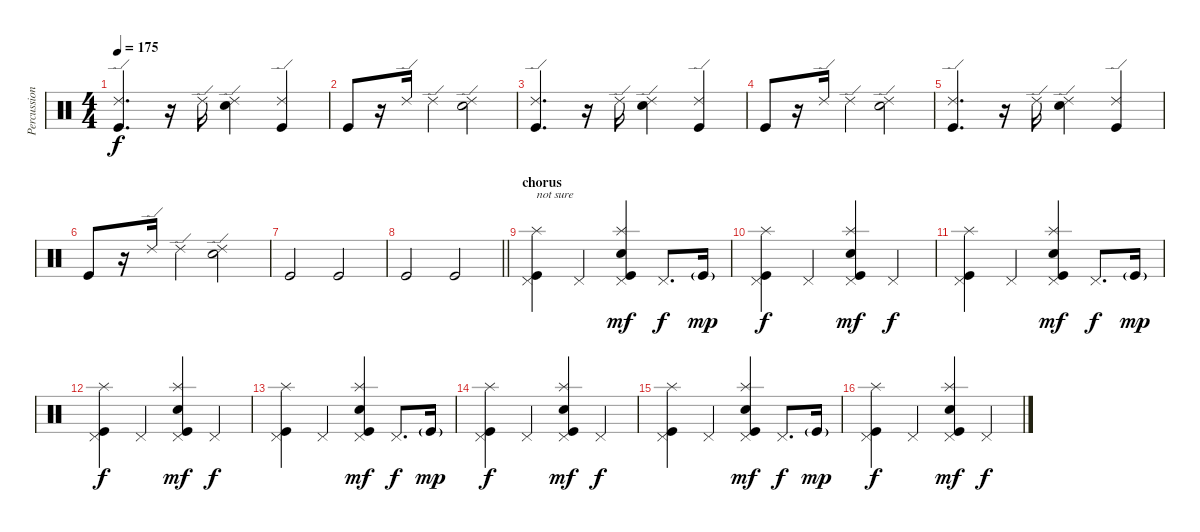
\track ("Percussion" "Percussion") {instrument percussion}
\staff {score}
\articulation defaults
\ts (4 4)
\tempo 175
\clef neutral
\ks c
("Ride (edge) 2" "Kick (hit)").4{d dy f} r.16 "Ride (edge) 2".16 ("Ride (edge) 2" "Hand Clap (hit)").4 ("Ride (edge) 2" "Kick (hit)").4 |
"Kick (hit)".8 r.16 "Ride (edge) 2".16 "Ride (edge) 2".4 ("Ride (edge) 2" "Hand Clap (hit)").2 |
("Ride (edge) 2" "Kick (hit)").4{d} r.16 "Ride (edge) 2".16 ("Ride (edge) 2" "Hand Clap (hit)").4 ("Ride (edge) 2" "Kick (hit)").4 |
"Kick (hit)".8 r.16 "Ride (edge) 2".16 "Ride (edge) 2".4 ("Ride (edge) 2" "Hand Clap (hit)").2 |
("Ride (edge) 2" "Kick (hit)").4{d} r.16 "Ride (edge) 2".16 ("Ride (edge) 2" "Hand Clap (hit)").4 ("Ride (edge) 2" "Kick (hit)").4 |
"Kick (hit)".8 r.16 "Ride (edge) 2".16 "Ride (edge) 2".4 ("Ride (edge) 2" "Hand Clap (hit)").2 |
"Kick (hit)".2 "Kick (hit)".2 |
\barLineRight lightlight "Kick (hit)".2 "Kick (hit)".2
|
\section ("" "chorus")
("Pedal Hi-Hat (hit)" "Splash (hit)" "Kick (hit)").4{txt "not sure"} "Pedal Hi-Hat (hit)".4 ("Pedal Hi-Hat (hit)" "Electric Snare (hit)" "Splash (hit)" "Kick (hit)").4{dy mf} "Pedal Hi-Hat (hit)".8{d dy f} "Kick (hit)"{g}.16{dy mp} |
("Pedal Hi-Hat (hit)" "Splash (hit)" "Kick (hit)").4{dy f} "Pedal Hi-Hat (hit)".4 ("Pedal Hi-Hat (hit)" "Electric Snare (hit)" "Splash (hit)" "Kick (hit)").4{dy mf} "Pedal Hi-Hat (hit)".4{dy f} |
("Pedal Hi-Hat (hit)" "Splash (hit)" "Kick (hit)").4 "Pedal Hi-Hat (hit)".4 ("Pedal Hi-Hat (hit)" "Electric Snare (hit)" "Splash (hit)" "Kick (hit)").4{dy mf} "Pedal Hi-Hat (hit)".8{d dy f} "Kick (hit)"{g}.16{dy mp} |
("Pedal Hi-Hat (hit)" "Splash (hit)" "Kick (hit)").4{dy f} "Pedal Hi-Hat (hit)".4 ("Pedal Hi-Hat (hit)" "Electric Snare (hit)" "Splash (hit)" "Kick (hit)").4{dy mf} "Pedal Hi-Hat (hit)".4{dy f} |
("Pedal Hi-Hat (hit)" "Splash (hit)" "Kick (hit)").4 "Pedal Hi-Hat (hit)".4 ("Pedal Hi-Hat (hit)" "Electric Snare (hit)" "Splash (hit)" "Kick (hit)").4{dy mf} "Pedal Hi-Hat (hit)".8{d dy f} "Kick (hit)"{g}.16{dy mp} |
("Pedal Hi-Hat (hit)" "Splash (hit)" "Kick (hit)").4{dy f} "Pedal Hi-Hat (hit)".4 ("Pedal Hi-Hat (hit)" "Electric Snare (hit)" "Splash (hit)" "Kick (hit)").4{dy mf} "Pedal Hi-Hat (hit)".4{dy f} |
("Pedal Hi-Hat (hit)" "Splash (hit)" "Kick (hit)").4 "Pedal Hi-Hat (hit)".4 ("Pedal Hi-Hat (hit)" "Electric Snare (hit)" "Splash (hit)" "Kick (hit)").4{dy mf} "Pedal Hi-Hat (hit)".8{d dy f} "Kick (hit)"{g}.16{dy mp} |
("Pedal Hi-Hat (hit)" "Splash (hit)" "Kick (hit)").4{dy f} "Pedal Hi-Hat (hit)".4 ("Pedal Hi-Hat (hit)" "Electric Snare (hit)" "Splash (hit)" "Kick (hit)").4{dy mf} "Pedal Hi-Hat (hit)".4{dy f}
